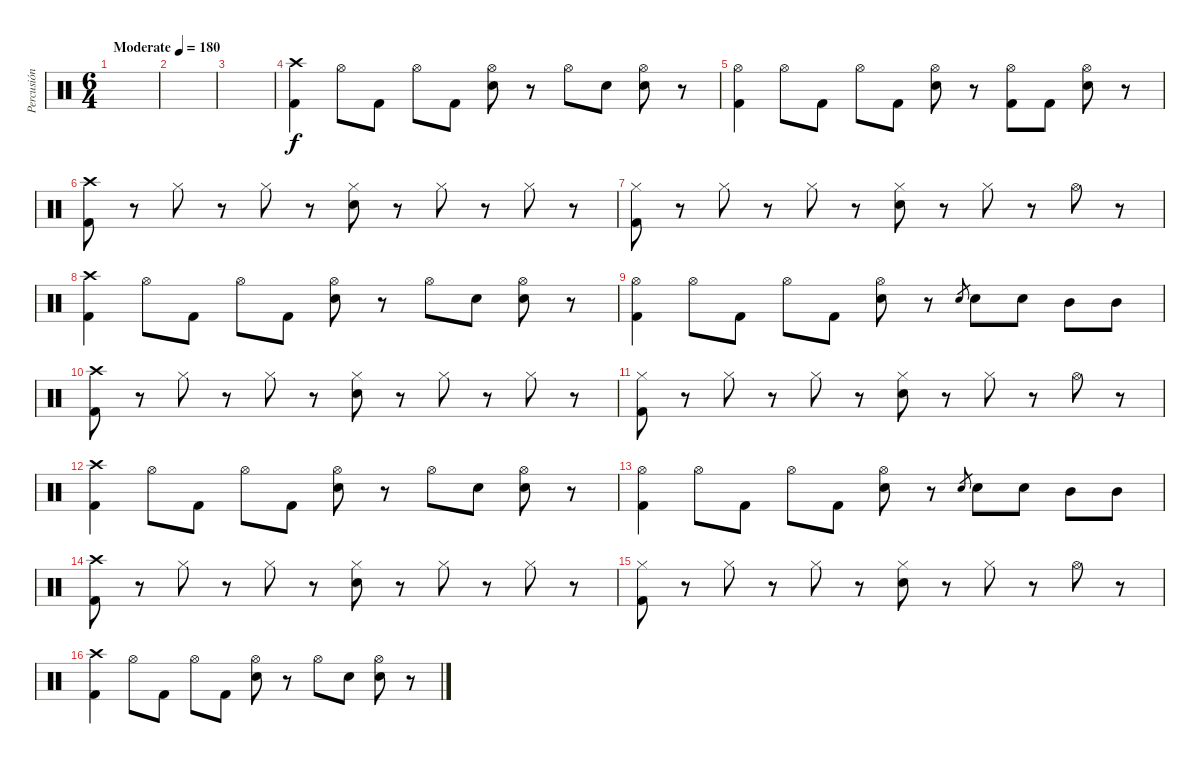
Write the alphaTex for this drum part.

\track ("Percusión" "Percusión") {instrument percussion}
\staff {score}
\articulation defaults
\ts (6 4)
\tempo (180 "Moderate")
\clef neutral
\ks c
|
|
|
("Crash high (hit)" "Kick (hit) 2").4 "Hi-Hat (open)".8 "Kick (hit) 2".8 "Hi-Hat (open)".8 "Kick (hit) 2".8 ("Hi-Hat (open)" "Electric Snare (hit)").8 r.8 "Hi-Hat (open)".8 "Electric Snare (hit)".8 ("Hi-Hat (open)" "Electric Snare (hit)").8 r.8 |
("Hi-Hat (open)" "Kick (hit) 2").4 "Hi-Hat (open)".8 "Kick (hit) 2".8 "Hi-Hat (open)".8 "Kick (hit) 2".8 ("Hi-Hat (open)" "Electric Snare (hit)").8 r.8 ("Hi-Hat (open)" "Kick (hit) 2").8 "Kick (hit) 2".8 ("Hi-Hat (open)" "Electric Snare (hit)").8 r.8 |
("Crash high (hit)" "Kick (hit) 2").8 r.8 "Hi-Hat (closed)".8 r.8 "Hi-Hat (closed)".8 r.8 ("Hi-Hat (closed)" "Electric Snare (hit)").8 r.8 "Hi-Hat (closed)".8 r.8 "Hi-Hat (closed)".8 r.8 |
("Hi-Hat (closed)" "Kick (hit) 2").8 r.8 "Hi-Hat (closed)".8 r.8 "Hi-Hat (closed)".8 r.8 ("Hi-Hat (closed)" "Electric Snare (hit)").8 r.8 "Hi-Hat (closed)".8 r.8 "Hi-Hat (open)".8 r.8 |
("Crash high (hit)" "Kick (hit) 2").4 "Hi-Hat (open)".8 "Kick (hit) 2".8 "Hi-Hat (open)".8 "Kick (hit) 2".8 ("Hi-Hat (open)" "Electric Snare (hit)").8 r.8 "Hi-Hat (open)".8 "Electric Snare (hit)".8 ("Hi-Hat (open)" "Electric Snare (hit)").8 r.8 |
("Hi-Hat (open)" "Kick (hit) 2").4 "Hi-Hat (open)".8 "Kick (hit) 2".8 "Hi-Hat (open)".8 "Kick (hit) 2".8 ("Hi-Hat (open)" "Electric Snare (hit)").8 r.8 "Electric Snare (hit)".8{gr} "Electric Snare (hit)".8 "Electric Snare (hit)".8 "Mid Tom (hit)".8 "Mid Tom (hit)".8 |
("Crash high (hit)" "Kick (hit) 2").8 r.8 "Hi-Hat (closed)".8 r.8 "Hi-Hat (closed)".8 r.8 ("Hi-Hat (closed)" "Electric Snare (hit)").8 r.8 "Hi-Hat (closed)".8 r.8 "Hi-Hat (closed)".8 r.8 |
("Hi-Hat (closed)" "Kick (hit) 2").8 r.8 "Hi-Hat (closed)".8 r.8 "Hi-Hat (closed)".8 r.8 ("Hi-Hat (closed)" "Electric Snare (hit)").8 r.8 "Hi-Hat (closed)".8 r.8 "Hi-Hat (open)".8 r.8 |
("Crash high (hit)" "Kick (hit) 2").4 "Hi-Hat (open)".8 "Kick (hit) 2".8 "Hi-Hat (open)".8 "Kick (hit) 2".8 ("Hi-Hat (open)" "Electric Snare (hit)").8 r.8 "Hi-Hat (open)".8 "Electric Snare (hit)".8 ("Hi-Hat (open)" "Electric Snare (hit)").8 r.8 |
("Hi-Hat (open)" "Kick (hit) 2").4 "Hi-Hat (open)".8 "Kick (hit) 2".8 "Hi-Hat (open)".8 "Kick (hit) 2".8 ("Hi-Hat (open)" "Electric Snare (hit)").8 r.8 "Electric Snare (hit)".8{gr} "Electric Snare (hit)".8 "Electric Snare (hit)".8 "Mid Tom (hit)".8 "Mid Tom (hit)".8 |
("Crash high (hit)" "Kick (hit) 2").8 r.8 "Hi-Hat (closed)".8 r.8 "Hi-Hat (closed)".8 r.8 ("Hi-Hat (closed)" "Electric Snare (hit)").8 r.8 "Hi-Hat (closed)".8 r.8 "Hi-Hat (closed)".8 r.8 |
("Hi-Hat (closed)" "Kick (hit) 2").8 r.8 "Hi-Hat (closed)".8 r.8 "Hi-Hat (closed)".8 r.8 ("Hi-Hat (closed)" "Electric Snare (hit)").8 r.8 "Hi-Hat (closed)".8 r.8 "Hi-Hat (open)".8 r.8 |
("Crash high (hit)" "Kick (hit) 2").4 "Hi-Hat (open)".8 "Kick (hit) 2".8 "Hi-Hat (open)".8 "Kick (hit) 2".8 ("Hi-Hat (open)" "Electric Snare (hit)").8 r.8 "Hi-Hat (open)".8 "Electric Snare (hit)".8 ("Hi-Hat (open)" "Electric Snare (hit)").8 r.8
